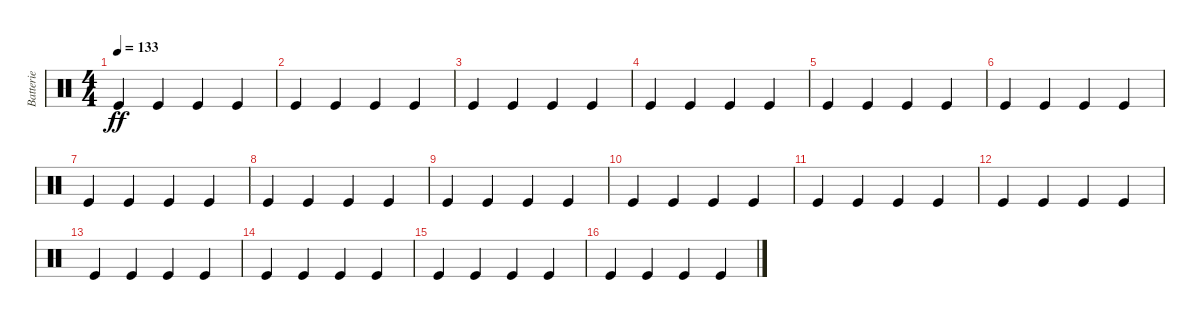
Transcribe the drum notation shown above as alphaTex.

\track ("Batterie" "Batterie") {instrument percussion}
\staff {score}
\articulation defaults
\ts (4 4)
\tempo 133
\clef neutral
\ks c "Kick (hit)".4{dy ff} "Kick (hit)".4 "Kick (hit)".4 "Kick (hit)".4
|
"Kick (hit)".4 "Kick (hit)".4 "Kick (hit)".4 "Kick (hit)".4 |
"Kick (hit)".4 "Kick (hit)".4 "Kick (hit)".4 "Kick (hit)".4 |
"Kick (hit)".4 "Kick (hit)".4 "Kick (hit)".4 "Kick (hit)".4 |
"Kick (hit)".4 "Kick (hit)".4 "Kick (hit)".4 "Kick (hit)".4 |
"Kick (hit)".4 "Kick (hit)".4 "Kick (hit)".4 "Kick (hit)".4 |
"Kick (hit)".4 "Kick (hit)".4 "Kick (hit)".4 "Kick (hit)".4 |
"Kick (hit)".4 "Kick (hit)".4 "Kick (hit)".4 "Kick (hit)".4 |
"Kick (hit)".4 "Kick (hit)".4 "Kick (hit)".4 "Kick (hit)".4 |
"Kick (hit)".4 "Kick (hit)".4 "Kick (hit)".4 "Kick (hit)".4 |
"Kick (hit)".4 "Kick (hit)".4 "Kick (hit)".4 "Kick (hit)".4 |
"Kick (hit)".4 "Kick (hit)".4 "Kick (hit)".4 "Kick (hit)".4 |
"Kick (hit)".4 "Kick (hit)".4 "Kick (hit)".4 "Kick (hit)".4 |
"Kick (hit)".4 "Kick (hit)".4 "Kick (hit)".4 "Kick (hit)".4 |
"Kick (hit)".4 "Kick (hit)".4 "Kick (hit)".4 "Kick (hit)".4 |
"Kick (hit)".4 "Kick (hit)".4 "Kick (hit)".4 "Kick (hit)".4
